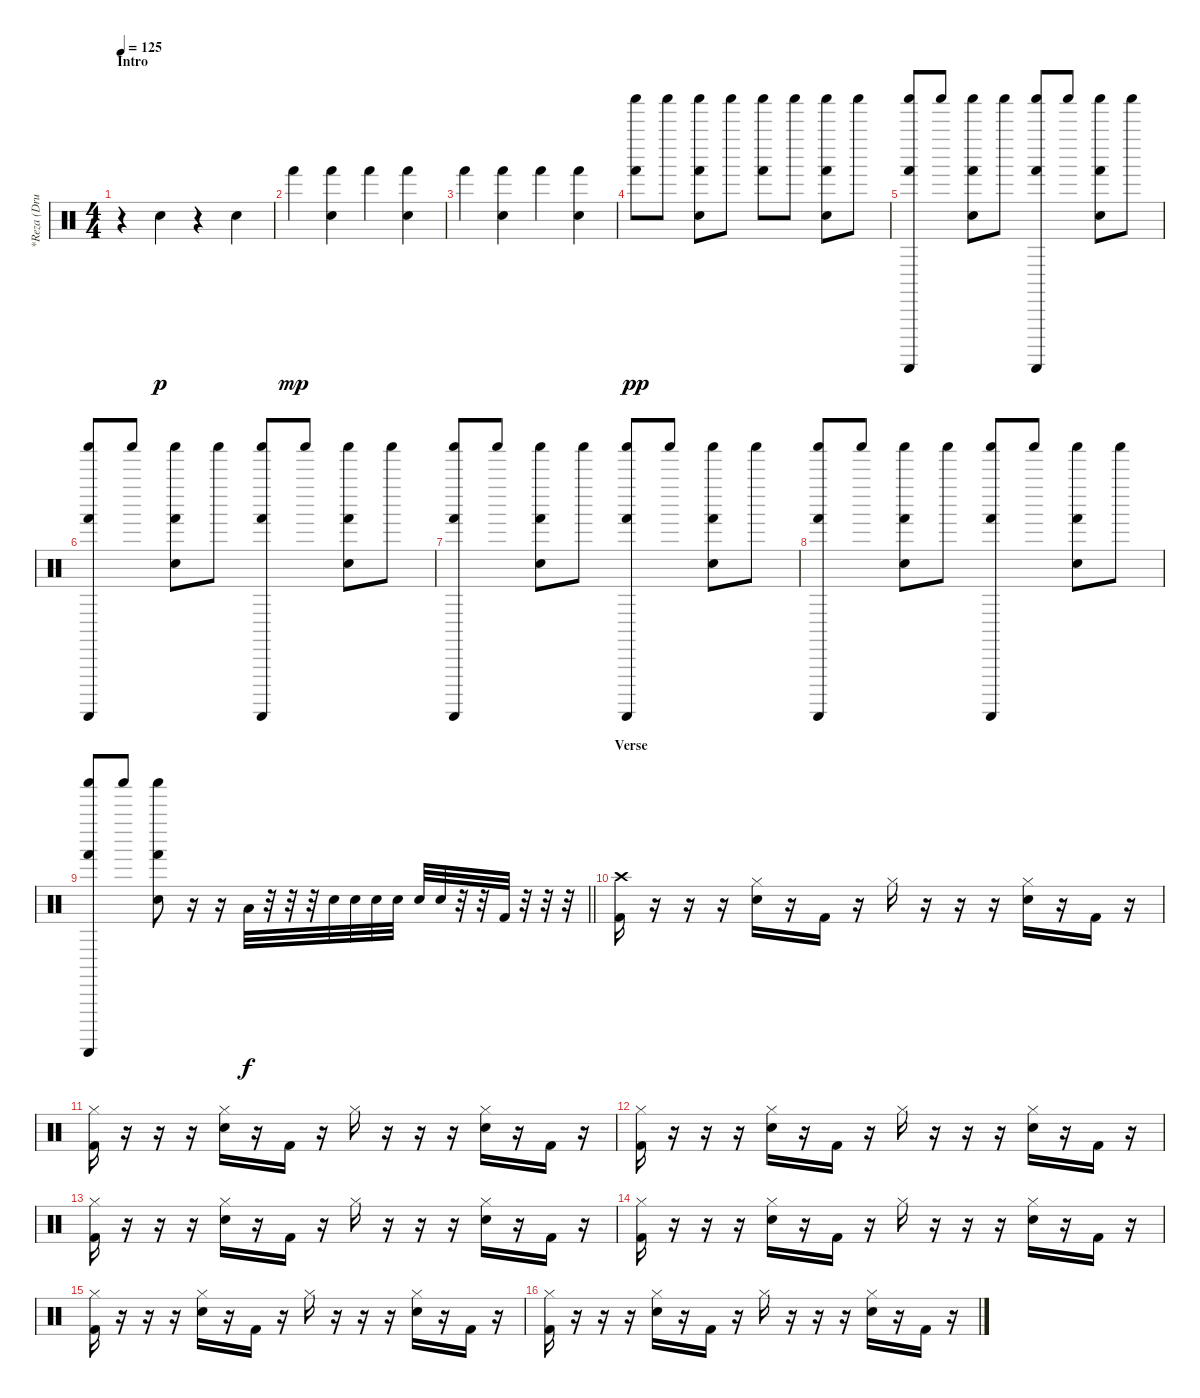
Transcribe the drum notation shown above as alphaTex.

\track ("*Reza (Drum)" "*Reza (Dru") {instrument percussion}
\staff {score}
\articulation defaults
\ts (4 4)
\section ("" "Intro")
\tempo 125
\clef neutral
\ks c
r.4{dy p} "Hand Clap (hit)".4 r.4 "Hand Clap (hit)".4 |
"Hand (hit)".4{dy mp} ("Hand (hit)" "Hand Clap (hit)").4 "Hand (hit)".4 ("Hand (hit)" "Hand Clap (hit)").4 |
"Hand (hit)".4 ("Hand (hit)" "Hand Clap (hit)").4 "Hand (hit)".4 ("Hand (hit)" "Hand Clap (hit)").4 |
("Hand (hit)" "Shaker (hit)").8{dy pp} "Shaker (hit)".8 ("Hand (hit)" "Shaker (hit)" "Hand Clap (hit)").8 "Shaker (hit)".8 ("Hand (hit)" "Shaker (hit)").8 "Shaker (hit)".8 ("Hand (hit)" "Shaker (hit)" "Hand Clap (hit)").8 "Shaker (hit)".8 |
("Hand (hit)" "Guiro (scrap-return)" "Shaker (hit)").8 "Shaker (hit)".8 ("Hand (hit)" "Shaker (hit)" "Hand Clap (hit)").8 "Shaker (hit)".8 ("Hand (hit)" "Guiro (scrap-return)" "Shaker (hit)").8 "Shaker (hit)".8 ("Hand (hit)" "Shaker (hit)" "Hand Clap (hit)").8 "Shaker (hit)".8 |
("Hand (hit)" "Guiro (scrap-return)" "Shaker (hit)").8 "Shaker (hit)".8 ("Hand (hit)" "Shaker (hit)" "Hand Clap (hit)").8 "Shaker (hit)".8 ("Hand (hit)" "Guiro (scrap-return)" "Shaker (hit)").8 "Shaker (hit)".8 ("Hand (hit)" "Shaker (hit)" "Hand Clap (hit)").8 "Shaker (hit)".8 |
("Hand (hit)" "Guiro (scrap-return)" "Shaker (hit)").8 "Shaker (hit)".8 ("Hand (hit)" "Shaker (hit)" "Hand Clap (hit)").8 "Shaker (hit)".8 ("Hand (hit)" "Guiro (scrap-return)" "Shaker (hit)").8 "Shaker (hit)".8 ("Hand (hit)" "Shaker (hit)" "Hand Clap (hit)").8 "Shaker (hit)".8 |
("Hand (hit)" "Guiro (scrap-return)" "Shaker (hit)").8 "Shaker (hit)".8 ("Hand (hit)" "Shaker (hit)" "Hand Clap (hit)").8 "Shaker (hit)".8 ("Hand (hit)" "Guiro (scrap-return)" "Shaker (hit)").8 "Shaker (hit)".8 ("Hand (hit)" "Shaker (hit)" "Hand Clap (hit)").8 "Shaker (hit)".8 |
\barLineRight lightlight
("Hand (hit)" "Guiro (scrap-return)" "Shaker (hit)").8 "Shaker (hit)".8 ("Hand (hit)" "Shaker (hit)" "Hand Clap (hit)").8 r.16{volume 13} r.16 "Low Floor Tom (hit)".32{dy f} r.32 r.32 r.32 "Electric Snare (hit)".32 "Electric Snare (hit)".32 "Electric Snare (hit)".32 "Electric Snare (hit)".32 "Electric Snare (hit)".32 "Electric Snare (hit)".32 r.32 r.32 "Kick (hit) 2".32 r.32 r.32 r.32 |
\section ("" "Verse")
("Crash high (hit)" "Kick (hit) 2").16 r.16 r.16 r.16 ("Hi-Hat (closed)" "Electric Snare (hit)").16 r.16 "Kick (hit) 2".16 r.16 "Hi-Hat (closed)".16 r.16 r.16 r.16 ("Hi-Hat (closed)" "Electric Snare (hit)").16 r.16 "Kick (hit) 2".16 r.16 |
("Hi-Hat (closed)" "Kick (hit) 2").16 r.16 r.16 r.16 ("Hi-Hat (closed)" "Electric Snare (hit)").16 r.16 "Kick (hit) 2".16 r.16 "Hi-Hat (closed)".16 r.16 r.16 r.16 ("Hi-Hat (closed)" "Electric Snare (hit)").16 r.16 "Kick (hit) 2".16 r.16 |
("Hi-Hat (closed)" "Kick (hit) 2").16 r.16 r.16 r.16 ("Hi-Hat (closed)" "Electric Snare (hit)").16 r.16 "Kick (hit) 2".16 r.16 "Hi-Hat (closed)".16 r.16 r.16 r.16 ("Hi-Hat (closed)" "Electric Snare (hit)").16 r.16 "Kick (hit) 2".16 r.16 |
("Hi-Hat (closed)" "Kick (hit) 2").16 r.16 r.16 r.16 ("Hi-Hat (closed)" "Electric Snare (hit)").16 r.16 "Kick (hit) 2".16 r.16 "Hi-Hat (closed)".16 r.16 r.16 r.16 ("Hi-Hat (closed)" "Electric Snare (hit)").16 r.16 "Kick (hit) 2".16 r.16 |
("Hi-Hat (closed)" "Kick (hit) 2").16 r.16 r.16 r.16 ("Hi-Hat (closed)" "Electric Snare (hit)").16 r.16 "Kick (hit) 2".16 r.16 "Hi-Hat (closed)".16 r.16 r.16 r.16 ("Hi-Hat (closed)" "Electric Snare (hit)").16 r.16 "Kick (hit) 2".16 r.16 |
("Hi-Hat (closed)" "Kick (hit) 2").16 r.16 r.16 r.16 ("Hi-Hat (closed)" "Electric Snare (hit)").16 r.16 "Kick (hit) 2".16 r.16 "Hi-Hat (closed)".16 r.16 r.16 r.16 ("Hi-Hat (closed)" "Electric Snare (hit)").16 r.16 "Kick (hit) 2".16 r.16 |
("Hi-Hat (closed)" "Kick (hit) 2").16 r.16 r.16 r.16 ("Hi-Hat (closed)" "Electric Snare (hit)").16 r.16 "Kick (hit) 2".16 r.16 "Hi-Hat (closed)".16 r.16 r.16 r.16 ("Hi-Hat (closed)" "Electric Snare (hit)").16 r.16 "Kick (hit) 2".16 r.16
